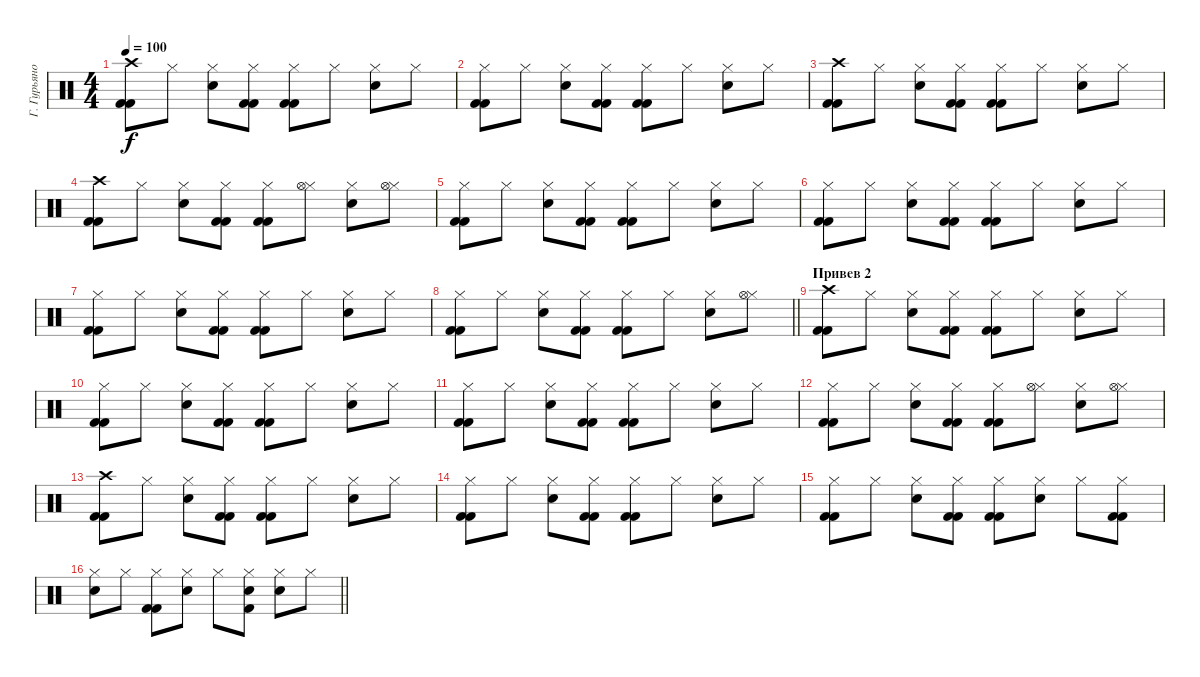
\track ("Г. Гурьянов" "Г. Гурьяно") {instrument percussion}
\staff {score}
\articulation defaults
\ts (4 4)
\tempo 100
\clef neutral
\ks c
("Crash high (hit)" "Kick (hit) 2" "Kick (hit) 2").8{dy f} "Hi-Hat (closed)".8 ("Hi-Hat (closed)" "Hand Clap (hit)").8 ("Hi-Hat (closed)" "Kick (hit) 2" "Kick (hit) 2").8 ("Hi-Hat (closed)" "Kick (hit) 2" "Kick (hit) 2").8 "Hi-Hat (closed)".8 ("Hi-Hat (closed)" "Hand Clap (hit)").8 "Hi-Hat (closed)".8 |
("Hi-Hat (closed)" "Kick (hit) 2" "Kick (hit) 2").8 "Hi-Hat (closed)".8 ("Hi-Hat (closed)" "Hand Clap (hit)").8 ("Hi-Hat (closed)" "Kick (hit) 2" "Kick (hit) 2").8 ("Hi-Hat (closed)" "Kick (hit) 2" "Kick (hit) 2").8 "Hi-Hat (closed)".8 ("Hi-Hat (closed)" "Hand Clap (hit)").8 "Hi-Hat (closed)".8 |
("Crash high (hit)" "Kick (hit) 2" "Kick (hit) 2").8 "Hi-Hat (closed)".8 ("Hi-Hat (closed)" "Hand Clap (hit)").8 ("Hi-Hat (closed)" "Kick (hit) 2" "Kick (hit) 2").8 ("Hi-Hat (closed)" "Kick (hit) 2" "Kick (hit) 2").8 "Hi-Hat (closed)".8 ("Hi-Hat (closed)" "Hand Clap (hit)").8 "Hi-Hat (closed)".8 |
("Crash high (hit)" "Kick (hit) 2" "Kick (hit) 2").8 "Hi-Hat (closed)".8 ("Hi-Hat (closed)" "Hand Clap (hit)").8 ("Hi-Hat (closed)" "Kick (hit) 2" "Kick (hit) 2").8 ("Hi-Hat (closed)" "Kick (hit) 2" "Kick (hit) 2").8 ("Hi-Hat (closed)" "Hi-Hat (open)").8 ("Hi-Hat (closed)" "Hand Clap (hit)").8 ("Hi-Hat (closed)" "Hi-Hat (open)").8 |
("Hi-Hat (closed)" "Kick (hit) 2" "Kick (hit) 2").8 "Hi-Hat (closed)".8 ("Hi-Hat (closed)" "Hand Clap (hit)").8 ("Hi-Hat (closed)" "Kick (hit) 2" "Kick (hit) 2").8 ("Hi-Hat (closed)" "Kick (hit) 2" "Kick (hit) 2").8 "Hi-Hat (closed)".8 ("Hi-Hat (closed)" "Hand Clap (hit)").8 "Hi-Hat (closed)".8 |
("Hi-Hat (closed)" "Kick (hit) 2" "Kick (hit) 2").8 "Hi-Hat (closed)".8 ("Hi-Hat (closed)" "Hand Clap (hit)").8 ("Hi-Hat (closed)" "Kick (hit) 2" "Kick (hit) 2").8 ("Hi-Hat (closed)" "Kick (hit) 2" "Kick (hit) 2").8 "Hi-Hat (closed)".8 ("Hi-Hat (closed)" "Hand Clap (hit)").8 "Hi-Hat (closed)".8 |
("Hi-Hat (closed)" "Kick (hit) 2" "Kick (hit) 2").8 "Hi-Hat (closed)".8 ("Hi-Hat (closed)" "Hand Clap (hit)").8 ("Hi-Hat (closed)" "Kick (hit) 2" "Kick (hit) 2").8 ("Hi-Hat (closed)" "Kick (hit) 2" "Kick (hit) 2").8 "Hi-Hat (closed)".8 ("Hi-Hat (closed)" "Hand Clap (hit)").8 "Hi-Hat (closed)".8 |
\barLineRight lightlight
("Hi-Hat (closed)" "Kick (hit) 2" "Kick (hit) 2").8 "Hi-Hat (closed)".8 ("Hi-Hat (closed)" "Hand Clap (hit)").8 ("Hi-Hat (closed)" "Kick (hit) 2" "Kick (hit) 2").8 ("Hi-Hat (closed)" "Kick (hit) 2" "Kick (hit) 2").8 "Hi-Hat (closed)".8 ("Hi-Hat (closed)" "Hand Clap (hit)").8 ("Hi-Hat (closed)" "Hi-Hat (open)").8 |
\section ("" "Привев 2")
("Crash high (hit)" "Kick (hit) 2" "Kick (hit) 2").8 "Hi-Hat (closed)".8 ("Hi-Hat (closed)" "Snare (hit) 2").8 ("Hi-Hat (closed)" "Kick (hit) 2" "Kick (hit) 2").8 ("Hi-Hat (closed)" "Kick (hit) 2" "Kick (hit) 2").8 "Hi-Hat (closed)".8 ("Hi-Hat (closed)" "Snare (hit) 2").8 "Hi-Hat (closed)".8 |
("Hi-Hat (closed)" "Kick (hit) 2" "Kick (hit) 2").8 "Hi-Hat (closed)".8 ("Hi-Hat (closed)" "Snare (hit) 2").8 ("Hi-Hat (closed)" "Kick (hit) 2" "Kick (hit) 2").8 ("Hi-Hat (closed)" "Kick (hit) 2" "Kick (hit) 2").8 "Hi-Hat (closed)".8 ("Hi-Hat (closed)" "Snare (hit) 2").8 "Hi-Hat (closed)".8 |
("Hi-Hat (closed)" "Kick (hit) 2" "Kick (hit) 2").8 "Hi-Hat (closed)".8 ("Hi-Hat (closed)" "Snare (hit) 2").8 ("Hi-Hat (closed)" "Kick (hit) 2" "Kick (hit) 2").8 ("Hi-Hat (closed)" "Kick (hit) 2" "Kick (hit) 2").8 "Hi-Hat (closed)".8 ("Hi-Hat (closed)" "Snare (hit) 2").8 "Hi-Hat (closed)".8 |
("Hi-Hat (closed)" "Kick (hit) 2" "Kick (hit) 2").8 "Hi-Hat (closed)".8 ("Hi-Hat (closed)" "Snare (hit) 2").8 ("Hi-Hat (closed)" "Kick (hit) 2" "Kick (hit) 2").8 ("Hi-Hat (closed)" "Kick (hit) 2" "Kick (hit) 2").8 ("Hi-Hat (closed)" "Hi-Hat (open)").8 ("Hi-Hat (closed)" "Snare (hit) 2").8 ("Hi-Hat (closed)" "Hi-Hat (open)").8 |
("Crash high (hit)" "Kick (hit) 2" "Kick (hit) 2").8 "Hi-Hat (closed)".8 ("Hi-Hat (closed)" "Snare (hit) 2").8 ("Hi-Hat (closed)" "Kick (hit) 2" "Kick (hit) 2").8 ("Hi-Hat (closed)" "Kick (hit) 2" "Kick (hit) 2").8 "Hi-Hat (closed)".8 ("Hi-Hat (closed)" "Snare (hit) 2").8 "Hi-Hat (closed)".8 |
("Hi-Hat (closed)" "Kick (hit) 2" "Kick (hit) 2").8 "Hi-Hat (closed)".8 ("Hi-Hat (closed)" "Snare (hit) 2").8 ("Hi-Hat (closed)" "Kick (hit) 2" "Kick (hit) 2").8 ("Hi-Hat (closed)" "Kick (hit) 2" "Kick (hit) 2").8 "Hi-Hat (closed)".8 ("Hi-Hat (closed)" "Snare (hit) 2").8 "Hi-Hat (closed)".8 |
("Hi-Hat (closed)" "Kick (hit) 2" "Kick (hit) 2").8 "Hi-Hat (closed)".8 ("Hi-Hat (closed)" "Snare (hit) 2").8 ("Hi-Hat (closed)" "Kick (hit) 2" "Kick (hit) 2").8 ("Hi-Hat (closed)" "Kick (hit) 2" "Kick (hit) 2").8 ("Hi-Hat (closed)" "Snare (hit) 2").8 "Hi-Hat (closed)".8 ("Hi-Hat (closed)" "Kick (hit) 2" "Kick (hit) 2").8 |
\barLineRight lightlight
("Hi-Hat (closed)" "Snare (hit) 2").8 "Hi-Hat (closed)".8 ("Hi-Hat (closed)" "Kick (hit) 2" "Kick (hit) 2").8 ("Hi-Hat (closed)" "Snare (hit) 2").8 "Hi-Hat (closed)".8 ("Hi-Hat (closed)" "Snare (hit) 2" "Kick (hit) 2").8 ("Hi-Hat (closed)" "Snare (hit) 2").8 "Hi-Hat (closed)".8
